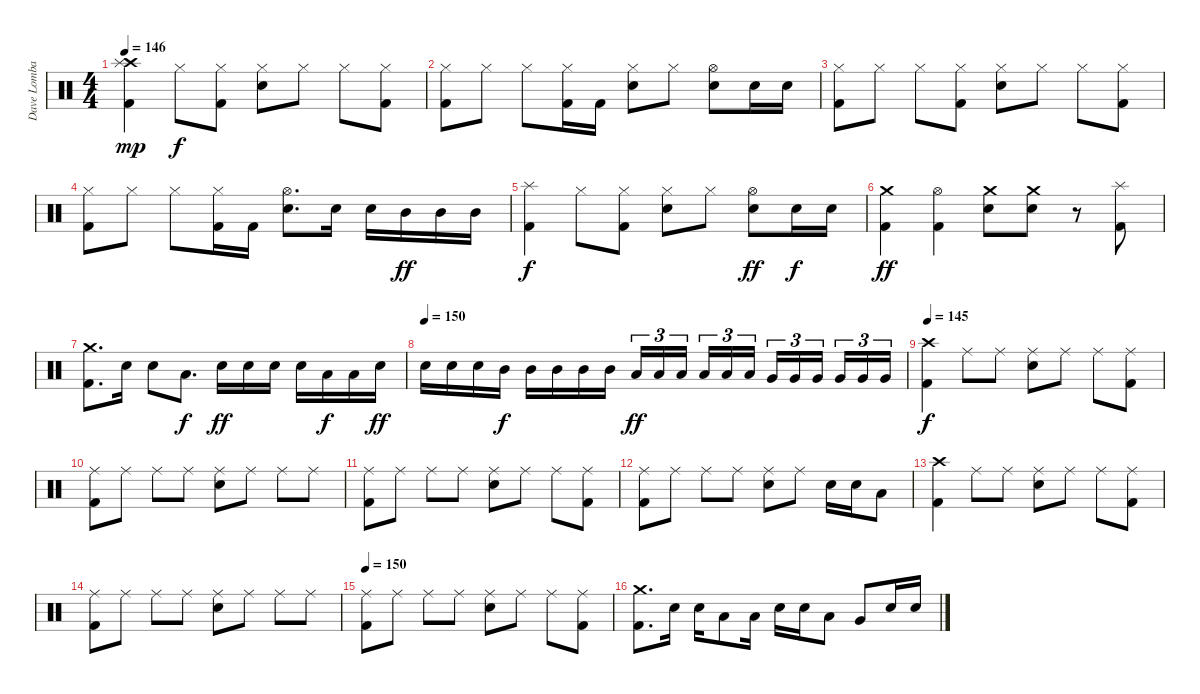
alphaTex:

\track ("Dave Lombardo" "Dave Lomba") {instrument percussion}
\staff {score}
\articulation defaults
\ts (4 4)
\tempo 146
\clef neutral
\ks c
("Crash high (hit)" "Splash (hit)" "Kick (hit) 2").4{dy mp} "Hi-Hat (closed)".8{dy f} ("Hi-Hat (closed)" "Kick (hit) 2").8 ("Hi-Hat (closed)" "Snare (hit) 2").8 "Hi-Hat (closed)".8 "Hi-Hat (closed)".8 ("Hi-Hat (closed)" "Kick (hit) 2").8 |
("Hi-Hat (closed)" "Kick (hit) 2").8 "Hi-Hat (closed)".8 "Hi-Hat (closed)".8 ("Hi-Hat (closed)" "Kick (hit) 2").16 "Kick (hit) 2".16 ("Hi-Hat (closed)" "Snare (hit) 2").8 "Hi-Hat (closed)".8 ("Hi-Hat (open)" "Snare (hit) 2").8 "Snare (hit) 2".16 "Snare (hit) 2".16 |
("Hi-Hat (closed)" "Kick (hit) 2").8 "Hi-Hat (closed)".8 "Hi-Hat (closed)".8 ("Hi-Hat (closed)" "Kick (hit) 2").8 ("Hi-Hat (closed)" "Snare (hit) 2").8 "Hi-Hat (closed)".8 "Hi-Hat (closed)".8 ("Hi-Hat (closed)" "Kick (hit) 2").8 |
("Hi-Hat (closed)" "Kick (hit) 2").8 "Hi-Hat (closed)".8 "Hi-Hat (closed)".8 ("Hi-Hat (closed)" "Kick (hit) 2").16 "Kick (hit) 2".16 ("Hi-Hat (open)" "Snare (hit) 2").8{d} "Snare (hit) 2".16 "Snare (hit) 2".16 "Mid Tom (hit)".16{dy ff} "Mid Tom (hit)".16 "Mid Tom (hit)".16 |
("Splash (hit)" "Kick (hit) 2").4{dy f} "Hi-Hat (closed)".8 ("Hi-Hat (closed)" "Kick (hit) 2").8 ("Hi-Hat (closed)" "Snare (hit) 2").8 "Hi-Hat (closed)".8 ("Hi-Hat (open)" "Snare (hit) 2").8{dy ff} "Snare (hit) 2".16{dy f} "Snare (hit) 2".16 |
("Crash medium (hit)" "Kick (hit) 2").4{dy ff} ("Hi-Hat (open)" "Kick (hit) 2").4 ("Crash medium (hit)" "Snare (hit) 2").8 ("Crash medium (hit)" "Snare (hit) 2").8 r.8 ("Splash (hit)" "Kick (hit) 2").8 |
("Crash medium (hit)" "Kick (hit) 2").8{d} "Snare (hit) 2".16 "Snare (hit) 2".8 "Low Tom (hit)".8{d dy f} "Snare (hit) 2".16{dy ff} "Snare (hit) 2".16 "Snare (hit) 2".16 "Snare (hit) 2".16 "Low Tom (hit)".16{dy f} "Low Tom (hit)".16 "Snare (hit) 2".16{dy ff} |
\tempo (150)
"Snare (hit) 2".16 "Snare (hit) 2".16 "Snare (hit) 2".16 "Mid Tom (hit)".16{dy f} "Mid Tom (hit)".16 "Mid Tom (hit)".16 "Mid Tom (hit)".16 "Mid Tom (hit)".16 "Low Tom (hit)".16{tu (3 2) dy ff} "Low Tom (hit)".16{tu (3 2)} "Low Tom (hit)".16{tu (3 2) beam splitsecondary} "Low Tom (hit)".16{tu (3 2)} "Low Tom (hit)".16{tu (3 2)} "Low Tom (hit)".16{tu (3 2)} "Very Low Tom (hit)".16{tu (3 2)} "Very Low Tom (hit)".16{tu (3 2)} "Very Low Tom (hit)".16{tu (3 2) beam splitsecondary} "Very Low Tom (hit)".16{tu (3 2)} "Very Low Tom (hit)".16{tu (3 2)} "Very Low Tom (hit)".16{tu (3 2)} |
\tempo 145
("Crash high (hit)" "Kick (hit) 2").4{dy f} "Ride (middle)".8 "Ride (middle)".8 ("Ride (middle)" "Snare (hit) 2").8 "Ride (middle)".8 "Ride (middle)".8 ("Ride (middle)" "Kick (hit) 2").8 |
("Ride (middle)" "Kick (hit) 2").8 "Ride (middle)".8 "Ride (middle)".8 "Ride (middle)".8 ("Ride (middle)" "Snare (hit) 2").8 "Ride (middle)".8 "Ride (middle)".8 "Ride (middle)".8 |
("Ride (middle)" "Kick (hit) 2").8 "Ride (middle)".8 "Ride (middle)".8 "Ride (middle)".8 ("Ride (middle)" "Snare (hit) 2").8 "Ride (middle)".8 "Ride (middle)".8 ("Ride (middle)" "Kick (hit) 2").8 |
("Ride (middle)" "Kick (hit) 2").8 "Ride (middle)".8 "Ride (middle)".8 "Ride (middle)".8 ("Ride (middle)" "Snare (hit) 2").8 "Ride (middle)".8 "Snare (hit) 2".16 "Snare (hit) 2".16 "Low Floor Tom (hit)".8 |
("Crash high (hit)" "Kick (hit) 2").4 "Ride (middle)".8 "Ride (middle)".8 ("Ride (middle)" "Snare (hit) 2").8 "Ride (middle)".8 "Ride (middle)".8 ("Ride (middle)" "Kick (hit) 2").8 |
("Ride (middle)" "Kick (hit) 2").8 "Ride (middle)".8 "Ride (middle)".8 "Ride (middle)".8 ("Ride (middle)" "Snare (hit) 2").8 "Ride (middle)".8 "Ride (middle)".8 "Ride (middle)".8 |
\tempo 150
("Ride (middle)" "Kick (hit) 2").8 "Ride (middle)".8 "Ride (middle)".8 "Ride (middle)".8 ("Ride (middle)" "Snare (hit) 2").8 "Ride (middle)".8 "Ride (middle)".8 ("Ride (middle)" "Kick (hit) 2").8 |
("Crash medium (hit)" "Kick (hit) 2").8{d} "Snare (hit) 2".16 "Snare (hit) 2".16 "Low Tom (hit)".8 "Low Tom (hit)".16 "Snare (hit) 2".16 "Snare (hit) 2".16 "Low Tom (hit)".8 "Very Low Tom (hit)".8 "Snare (hit) 2".16 "Snare (hit) 2".16
